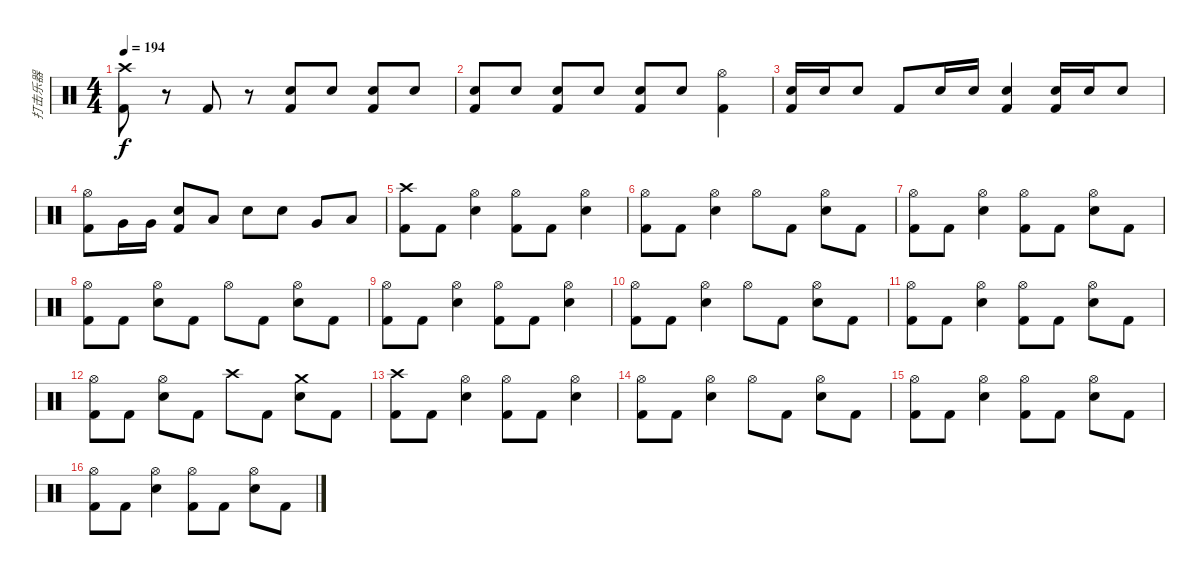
\track ("打击乐器" "打击乐器") {instrument percussion}
\staff {score}
\articulation defaults
\ts (4 4)
\tempo 194
\clef neutral
\ks c
("Crash high (hit)" "Kick (hit) 2").8{dy f} r.8 "Kick (hit) 2".8 r.8 ("Electric Snare (hit)" "Kick (hit) 2").8 "Electric Snare (hit)".8 ("Electric Snare (hit)" "Kick (hit) 2").8 "Electric Snare (hit)".8 |
("Electric Snare (hit)" "Kick (hit) 2").8 "Electric Snare (hit)".8 ("Electric Snare (hit)" "Kick (hit) 2").8 "Electric Snare (hit)".8 ("Electric Snare (hit)" "Kick (hit) 2").8 "Electric Snare (hit)".8 ("Hi-Hat (open)" "Kick (hit) 2").4 |
("Electric Snare (hit)" "Kick (hit) 2").16 "Electric Snare (hit)".16 "Electric Snare (hit)".8 "Kick (hit) 2".8 "Electric Snare (hit)".16 "Electric Snare (hit)".16 ("Electric Snare (hit)" "Kick (hit) 2").4 ("Electric Snare (hit)" "Kick (hit) 2").16 "Electric Snare (hit)".16 "Electric Snare (hit)".8 |
("Hi-Hat (open)" "Kick (hit) 2").8 "Very Low Tom (hit)".16 "Very Low Tom (hit)".16 ("Electric Snare (hit)" "Kick (hit) 2").8 "Low Tom (hit)".8 "Electric Snare (hit)".8 "Electric Snare (hit)".8 "Very Low Tom (hit)".8 "Low Floor Tom (hit)".8 |
("Crash high (hit)" "Kick (hit) 2").8 "Kick (hit) 2".8 ("Hi-Hat (open)" "Electric Snare (hit)").4 ("Hi-Hat (open)" "Kick (hit) 2").8 "Kick (hit) 2".8 ("Hi-Hat (open)" "Electric Snare (hit)").4 |
("Hi-Hat (open)" "Kick (hit) 2").8 "Kick (hit) 2".8 ("Hi-Hat (open)" "Electric Snare (hit)").4 "Hi-Hat (open)".8 "Kick (hit) 2".8 ("Hi-Hat (open)" "Electric Snare (hit)").8 "Kick (hit) 2".8 |
("Hi-Hat (open)" "Kick (hit) 2").8 "Kick (hit) 2".8 ("Hi-Hat (open)" "Electric Snare (hit)").4 ("Hi-Hat (open)" "Kick (hit) 2").8 "Kick (hit) 2".8 ("Hi-Hat (open)" "Electric Snare (hit)").8 "Kick (hit) 2".8 |
("Hi-Hat (open)" "Kick (hit) 2").8 "Kick (hit) 2".8 ("Hi-Hat (open)" "Electric Snare (hit)").8 "Kick (hit) 2".8 "Hi-Hat (open)".8 "Kick (hit) 2".8 ("Hi-Hat (open)" "Electric Snare (hit)").8 "Kick (hit) 2".8 |
("Hi-Hat (open)" "Kick (hit) 2").8 "Kick (hit) 2".8 ("Hi-Hat (open)" "Electric Snare (hit)").4 ("Hi-Hat (open)" "Kick (hit) 2").8 "Kick (hit) 2".8 ("Hi-Hat (open)" "Electric Snare (hit)").4 |
("Hi-Hat (open)" "Kick (hit) 2").8 "Kick (hit) 2".8 ("Hi-Hat (open)" "Electric Snare (hit)").4 "Hi-Hat (open)".8 "Kick (hit) 2".8 ("Hi-Hat (open)" "Electric Snare (hit)").8 "Kick (hit) 2".8 |
("Hi-Hat (open)" "Kick (hit) 2").8 "Kick (hit) 2".8 ("Hi-Hat (open)" "Electric Snare (hit)").4 ("Hi-Hat (open)" "Kick (hit) 2").8 "Kick (hit) 2".8 ("Hi-Hat (open)" "Electric Snare (hit)").8 "Kick (hit) 2".8 |
("Hi-Hat (open)" "Kick (hit) 2").8 "Kick (hit) 2".8 ("Hi-Hat (open)" "Electric Snare (hit)").8 "Kick (hit) 2".8 "Crash high (hit)".8 "Kick (hit) 2".8 ("Crash medium (hit)" "Electric Snare (hit)").8 "Kick (hit) 2".8 |
("Crash high (hit)" "Kick (hit) 2").8 "Kick (hit) 2".8 ("Hi-Hat (open)" "Electric Snare (hit)").4 ("Hi-Hat (open)" "Kick (hit) 2").8 "Kick (hit) 2".8 ("Hi-Hat (open)" "Electric Snare (hit)").4 |
("Hi-Hat (open)" "Kick (hit) 2").8 "Kick (hit) 2".8 ("Hi-Hat (open)" "Electric Snare (hit)").4 "Hi-Hat (open)".8 "Kick (hit) 2".8 ("Hi-Hat (open)" "Electric Snare (hit)").8 "Kick (hit) 2".8 |
("Hi-Hat (open)" "Kick (hit) 2").8 "Kick (hit) 2".8 ("Hi-Hat (open)" "Electric Snare (hit)").4 ("Hi-Hat (open)" "Kick (hit) 2").8 "Kick (hit) 2".8 ("Hi-Hat (open)" "Electric Snare (hit)").8 "Kick (hit) 2".8 |
("Hi-Hat (open)" "Kick (hit) 2").8 "Kick (hit) 2".8 ("Hi-Hat (open)" "Electric Snare (hit)").4 ("Hi-Hat (open)" "Kick (hit) 2").8 "Kick (hit) 2".8 ("Hi-Hat (open)" "Electric Snare (hit)").8 "Kick (hit) 2".8
